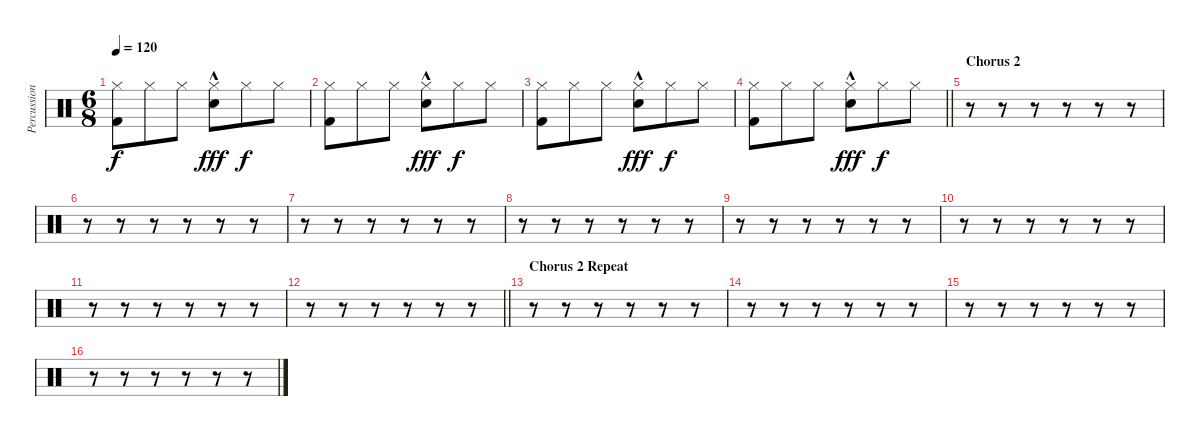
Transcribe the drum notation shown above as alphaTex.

\track ("Percussion" "Percussion") {mute instrument percussion}
\staff {score}
\articulation defaults
\ts (6 8)
\tempo 120
\clef neutral
\ks c
("Kick (hit) 2" "Hi-Hat (closed)").8{dy f} "Hi-Hat (closed)".8 "Hi-Hat (closed)".8 ("Snare (hit) 2"{hac} "Hi-Hat (closed)").8{dy fff} "Hi-Hat (closed)".8{dy f} "Hi-Hat (closed)".8 |
("Kick (hit) 2" "Hi-Hat (closed)").8 "Hi-Hat (closed)".8 "Hi-Hat (closed)".8 ("Snare (hit) 2"{hac} "Hi-Hat (closed)").8{dy fff} "Hi-Hat (closed)".8{dy f} "Hi-Hat (closed)".8 |
("Kick (hit) 2" "Hi-Hat (closed)").8 "Hi-Hat (closed)".8 "Hi-Hat (closed)".8 ("Snare (hit) 2"{hac} "Hi-Hat (closed)").8{dy fff} "Hi-Hat (closed)".8{dy f} "Hi-Hat (closed)".8 |
\barLineRight lightlight
("Kick (hit) 2" "Hi-Hat (closed)").8 "Hi-Hat (closed)".8 "Hi-Hat (closed)".8 ("Snare (hit) 2"{hac} "Hi-Hat (closed)").8{dy fff} "Hi-Hat (closed)".8{dy f} "Hi-Hat (closed)".8 |
\section ("" "Chorus 2")
r.8 r.8 r.8 r.8 r.8 r.8 |
r.8 r.8 r.8 r.8 r.8 r.8 |
r.8 r.8 r.8 r.8 r.8 r.8 |
r.8 r.8 r.8 r.8 r.8 r.8 |
r.8 r.8 r.8 r.8 r.8 r.8 |
r.8 r.8 r.8 r.8 r.8 r.8 |
r.8 r.8 r.8 r.8 r.8 r.8 |
\barLineRight lightlight
r.8 r.8 r.8 r.8 r.8 r.8 |
\section ("" "Chorus 2 Repeat")
r.8 r.8 r.8 r.8 r.8 r.8 |
r.8 r.8 r.8 r.8 r.8 r.8 |
r.8 r.8 r.8 r.8 r.8 r.8 |
r.8 r.8 r.8 r.8 r.8 r.8
